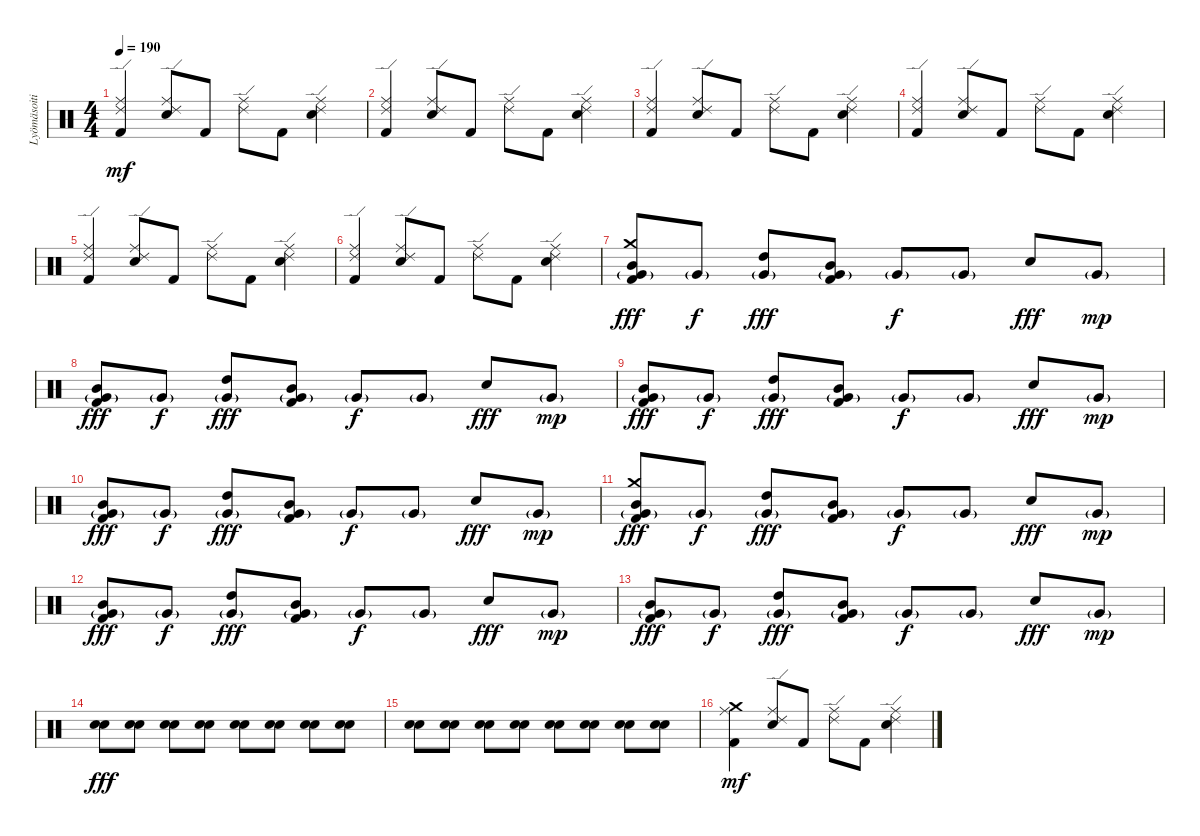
\track ("Lyömäsoitin" "Lyömäsoiti") {instrument percussion}
\staff {score}
\articulation defaults
\ts (4 4)
\tempo 190
\clef neutral
\ks c
("Ride (edge) 2" "Ride (middle)" "Kick (hit) 2").4{dy mf} ("Ride (edge) 2" "Ride (middle)" "Snare (hit) 2").8 "Kick (hit) 2".8 ("Ride (edge) 2" "Ride (middle)").8 "Kick (hit) 2".8 ("Ride (edge) 2" "Ride (middle)" "Snare (hit) 2").4 |
("Ride (edge) 2" "Ride (middle)" "Kick (hit) 2").4 ("Ride (edge) 2" "Ride (middle)" "Snare (hit) 2").8 "Kick (hit) 2".8 ("Ride (edge) 2" "Ride (middle)").8 "Kick (hit) 2".8 ("Ride (edge) 2" "Ride (middle)" "Snare (hit) 2").4 |
("Ride (edge) 2" "Ride (middle)" "Kick (hit) 2").4 ("Ride (edge) 2" "Ride (middle)" "Snare (hit) 2").8 "Kick (hit) 2".8 ("Ride (edge) 2" "Ride (middle)").8 "Kick (hit) 2".8 ("Ride (edge) 2" "Ride (middle)" "Snare (hit) 2").4 |
("Ride (edge) 2" "Ride (middle)" "Kick (hit) 2").4 ("Ride (edge) 2" "Ride (middle)" "Snare (hit) 2").8 "Kick (hit) 2".8 ("Ride (edge) 2" "Ride (middle)").8 "Kick (hit) 2".8 ("Ride (edge) 2" "Ride (middle)" "Snare (hit) 2").4 |
("Ride (edge) 2" "Ride (middle)" "Kick (hit) 2").4 ("Ride (edge) 2" "Ride (middle)" "Snare (hit) 2").8 "Kick (hit) 2".8 ("Ride (edge) 2" "Ride (middle)").8 "Kick (hit) 2".8 ("Ride (edge) 2" "Ride (middle)" "Snare (hit) 2").4 |
("Ride (edge) 2" "Ride (middle)" "Kick (hit) 2").4 ("Ride (edge) 2" "Ride (middle)" "Snare (hit) 2").8 "Kick (hit) 2".8 ("Ride (edge) 2" "Ride (middle)").8 "Kick (hit) 2".8 ("Ride (edge) 2" "Ride (middle)" "Snare (hit) 2").4 |
("Crash medium (hit)" "Mid Tom (hit)" "Very Low Tom (hit)"{g} "Kick (hit) 2").8{dy fff} "Very Low Tom (hit)"{g}.8{dy f} ("High Tom (hit)" "Very Low Tom (hit)"{g}).8{dy fff} ("Mid Tom (hit)" "Very Low Tom (hit)"{g} "Kick (hit) 2").8 "Very Low Tom (hit)"{g}.8{dy f} "Very Low Tom (hit)"{g}.8 "Electric Snare (hit)".8{dy fff} "Very Low Tom (hit)"{g}.8{dy mp} |
("Mid Tom (hit)" "Very Low Tom (hit)"{g} "Kick (hit) 2").8{dy fff} "Very Low Tom (hit)"{g}.8{dy f} ("High Tom (hit)" "Very Low Tom (hit)"{g}).8{dy fff} ("Mid Tom (hit)" "Very Low Tom (hit)"{g} "Kick (hit) 2").8 "Very Low Tom (hit)"{g}.8{dy f} "Very Low Tom (hit)"{g}.8 "Electric Snare (hit)".8{dy fff} "Very Low Tom (hit)"{g}.8{dy mp} |
("Mid Tom (hit)" "Very Low Tom (hit)"{g} "Kick (hit) 2").8{dy fff} "Very Low Tom (hit)"{g}.8{dy f} ("High Tom (hit)" "Very Low Tom (hit)"{g}).8{dy fff} ("Mid Tom (hit)" "Very Low Tom (hit)"{g} "Kick (hit) 2").8 "Very Low Tom (hit)"{g}.8{dy f} "Very Low Tom (hit)"{g}.8 "Electric Snare (hit)".8{dy fff} "Very Low Tom (hit)"{g}.8{dy mp} |
("Mid Tom (hit)" "Very Low Tom (hit)"{g} "Kick (hit) 2").8{dy fff} "Very Low Tom (hit)"{g}.8{dy f} ("High Tom (hit)" "Very Low Tom (hit)"{g}).8{dy fff} ("Mid Tom (hit)" "Very Low Tom (hit)"{g} "Kick (hit) 2").8 "Very Low Tom (hit)"{g}.8{dy f} "Very Low Tom (hit)"{g}.8 "Electric Snare (hit)".8{dy fff} "Very Low Tom (hit)"{g}.8{dy mp} |
("Crash medium (hit)" "Mid Tom (hit)" "Very Low Tom (hit)"{g} "Kick (hit) 2").8{dy fff} "Very Low Tom (hit)"{g}.8{dy f} ("High Tom (hit)" "Very Low Tom (hit)"{g}).8{dy fff} ("Mid Tom (hit)" "Very Low Tom (hit)"{g} "Kick (hit) 2").8 "Very Low Tom (hit)"{g}.8{dy f} "Very Low Tom (hit)"{g}.8 "Electric Snare (hit)".8{dy fff} "Very Low Tom (hit)"{g}.8{dy mp} |
("Mid Tom (hit)" "Very Low Tom (hit)"{g} "Kick (hit) 2").8{dy fff} "Very Low Tom (hit)"{g}.8{dy f} ("High Tom (hit)" "Very Low Tom (hit)"{g}).8{dy fff} ("Mid Tom (hit)" "Very Low Tom (hit)"{g} "Kick (hit) 2").8 "Very Low Tom (hit)"{g}.8{dy f} "Very Low Tom (hit)"{g}.8 "Electric Snare (hit)".8{dy fff} "Very Low Tom (hit)"{g}.8{dy mp} |
("Mid Tom (hit)" "Very Low Tom (hit)"{g} "Kick (hit) 2").8{dy fff} "Very Low Tom (hit)"{g}.8{dy f} ("High Tom (hit)" "Very Low Tom (hit)"{g}).8{dy fff} ("Mid Tom (hit)" "Very Low Tom (hit)"{g} "Kick (hit) 2").8 "Very Low Tom (hit)"{g}.8{dy f} "Very Low Tom (hit)"{g}.8 "Electric Snare (hit)".8{dy fff} "Very Low Tom (hit)"{g}.8{dy mp volume 5} |
("Snare (hit) 2" "Electric Snare (hit)").8{dy fff volume 16} ("Snare (hit) 2" "Electric Snare (hit)").8 ("Snare (hit) 2" "Electric Snare (hit)").8 ("Snare (hit) 2" "Electric Snare (hit)").8 ("Snare (hit) 2" "Electric Snare (hit)").8 ("Snare (hit) 2" "Electric Snare (hit)").8 ("Snare (hit) 2" "Electric Snare (hit)").8 ("Snare (hit) 2" "Electric Snare (hit)").8 |
("Snare (hit) 2" "Electric Snare (hit)").8 ("Snare (hit) 2" "Electric Snare (hit)").8 ("Snare (hit) 2" "Electric Snare (hit)").8 ("Snare (hit) 2" "Electric Snare (hit)").8 ("Snare (hit) 2" "Electric Snare (hit)").8 ("Snare (hit) 2" "Electric Snare (hit)").8 ("Snare (hit) 2" "Electric Snare (hit)").8 ("Snare (hit) 2" "Electric Snare (hit)").8 |
("Crash medium (hit)" "Ride (middle)" "Kick (hit) 2").4{dy mf} ("Ride (edge) 2" "Ride (middle)" "Snare (hit) 2").8 "Kick (hit) 2".8 ("Ride (edge) 2" "Ride (middle)").8 "Kick (hit) 2".8 ("Ride (edge) 2" "Ride (middle)" "Snare (hit) 2").4
